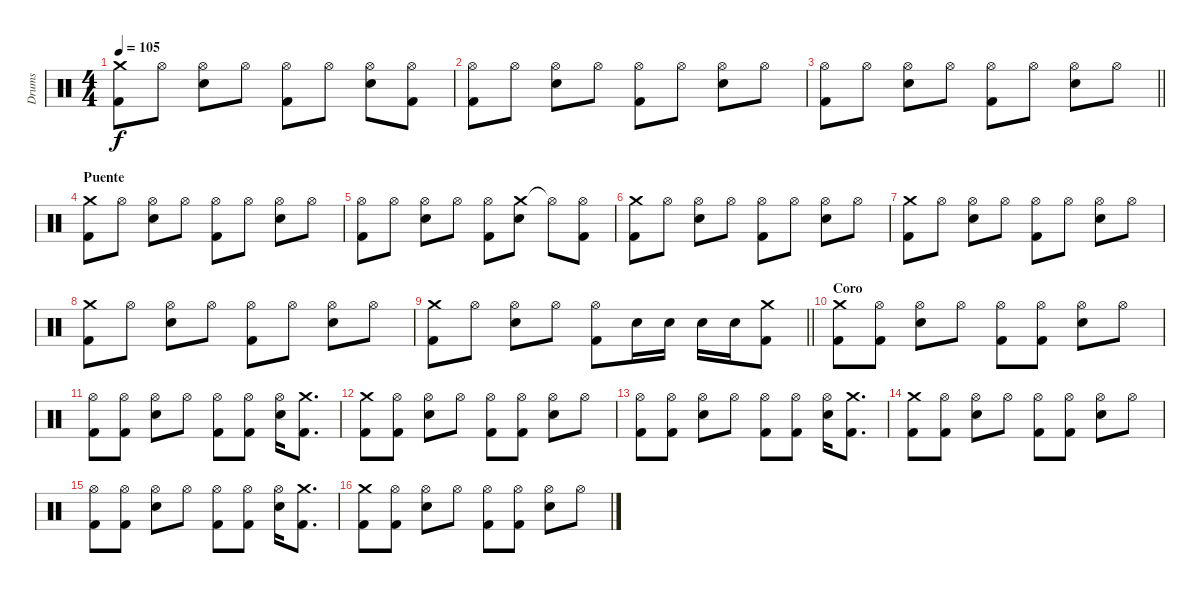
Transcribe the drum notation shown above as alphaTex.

\track ("Drums" "Drums") {instrument percussion}
\staff {score}
\articulation defaults
\ts (4 4)
\tempo 105
\clef neutral
\ks c
("Crash medium (hit)" "Kick (hit) 2").8{dy f} "Hi-Hat (open)".8 ("Hi-Hat (open)" "Snare (hit) 2").8 "Hi-Hat (open)".8 ("Hi-Hat (open)" "Kick (hit) 2").8 "Hi-Hat (open)".8 ("Hi-Hat (open)" "Snare (hit) 2").8 ("Hi-Hat (open)" "Kick (hit) 2").8 |
("Hi-Hat (open)" "Kick (hit) 2").8 "Hi-Hat (open)".8 ("Hi-Hat (open)" "Snare (hit) 2").8 "Hi-Hat (open)".8 ("Hi-Hat (open)" "Kick (hit) 2").8 "Hi-Hat (open)".8 ("Hi-Hat (open)" "Snare (hit) 2").8 "Hi-Hat (open)".8 |
\barLineRight lightlight
("Hi-Hat (open)" "Kick (hit) 2").8 "Hi-Hat (open)".8 ("Hi-Hat (open)" "Snare (hit) 2").8 "Hi-Hat (open)".8 ("Hi-Hat (open)" "Kick (hit) 2").8 "Hi-Hat (open)".8 ("Hi-Hat (open)" "Snare (hit) 2").8 "Hi-Hat (open)".8 |
\section ("" "Puente")
("Crash medium (hit)" "Kick (hit) 2").8 "Hi-Hat (open)".8 ("Hi-Hat (open)" "Snare (hit) 2").8 "Hi-Hat (open)".8 ("Hi-Hat (open)" "Kick (hit) 2").8 "Hi-Hat (open)".8 ("Hi-Hat (open)" "Snare (hit) 2").8 "Hi-Hat (open)".8 |
("Hi-Hat (open)" "Kick (hit) 2").8 "Hi-Hat (open)".8 ("Hi-Hat (open)" "Snare (hit) 2").8 "Hi-Hat (open)".8 ("Hi-Hat (open)" "Kick (hit) 2").8 ("Crash medium (hit)" "Snare (hit) 2").8 "Hi-Hat (open)"{t}.8 ("Hi-Hat (open)" "Kick (hit) 2").8 |
("Crash medium (hit)" "Kick (hit) 2").8 "Hi-Hat (open)".8 ("Hi-Hat (open)" "Snare (hit) 2").8 "Hi-Hat (open)".8 ("Hi-Hat (open)" "Kick (hit) 2").8 "Hi-Hat (open)".8 ("Hi-Hat (open)" "Snare (hit) 2").8 "Hi-Hat (open)".8 |
("Crash medium (hit)" "Kick (hit) 2").8 "Hi-Hat (open)".8 ("Hi-Hat (open)" "Snare (hit) 2").8 "Hi-Hat (open)".8 ("Hi-Hat (open)" "Kick (hit) 2").8 "Hi-Hat (open)".8 ("Hi-Hat (open)" "Snare (hit) 2").8 "Hi-Hat (open)".8 |
("Crash medium (hit)" "Kick (hit) 2").8 "Hi-Hat (open)".8 ("Hi-Hat (open)" "Snare (hit) 2").8 "Hi-Hat (open)".8 ("Hi-Hat (open)" "Kick (hit) 2").8 "Hi-Hat (open)".8 ("Hi-Hat (open)" "Snare (hit) 2").8 "Hi-Hat (open)".8 |
\barLineRight lightlight
("Crash medium (hit)" "Kick (hit) 2").8 "Hi-Hat (open)".8 ("Hi-Hat (open)" "Snare (hit) 2").8 "Hi-Hat (open)".8 ("Hi-Hat (open)" "Kick (hit) 2").8 "Snare (hit) 2".16 "Snare (hit) 2".16 "Snare (hit) 2".16 "Snare (hit) 2".16 ("Crash medium (hit)" "Kick (hit) 2").8 |
\section ("" "Coro")
("Crash medium (hit)" "Kick (hit) 2").8 ("Hi-Hat (open)" "Kick (hit) 2").8 ("Hi-Hat (open)" "Snare (hit) 2").8 "Hi-Hat (open)".8 ("Hi-Hat (open)" "Kick (hit) 2").8 ("Hi-Hat (open)" "Kick (hit) 2").8 ("Hi-Hat (open)" "Snare (hit) 2").8 "Hi-Hat (open)".8 |
("Hi-Hat (open)" "Kick (hit) 2").8 ("Hi-Hat (open)" "Kick (hit) 2").8 ("Hi-Hat (open)" "Snare (hit) 2").8 "Hi-Hat (open)".8 ("Hi-Hat (open)" "Kick (hit) 2").8 ("Hi-Hat (open)" "Kick (hit) 2").8 ("Hi-Hat (open)" "Snare (hit) 2").16 ("Crash medium (hit)" "Kick (hit) 2").8{d} |
("Crash medium (hit)" "Kick (hit) 2").8 ("Hi-Hat (open)" "Kick (hit) 2").8 ("Hi-Hat (open)" "Snare (hit) 2").8 "Hi-Hat (open)".8 ("Hi-Hat (open)" "Kick (hit) 2").8 ("Hi-Hat (open)" "Kick (hit) 2").8 ("Hi-Hat (open)" "Snare (hit) 2").8 "Hi-Hat (open)".8 |
("Hi-Hat (open)" "Kick (hit) 2").8 ("Hi-Hat (open)" "Kick (hit) 2").8 ("Hi-Hat (open)" "Snare (hit) 2").8 "Hi-Hat (open)".8 ("Hi-Hat (open)" "Kick (hit) 2").8 ("Hi-Hat (open)" "Kick (hit) 2").8 ("Hi-Hat (open)" "Snare (hit) 2").16 ("Crash medium (hit)" "Kick (hit) 2").8{d} |
("Crash medium (hit)" "Kick (hit) 2").8 ("Hi-Hat (open)" "Kick (hit) 2").8 ("Hi-Hat (open)" "Snare (hit) 2").8 "Hi-Hat (open)".8 ("Hi-Hat (open)" "Kick (hit) 2").8 ("Hi-Hat (open)" "Kick (hit) 2").8 ("Hi-Hat (open)" "Snare (hit) 2").8 "Hi-Hat (open)".8 |
("Hi-Hat (open)" "Kick (hit) 2").8 ("Hi-Hat (open)" "Kick (hit) 2").8 ("Hi-Hat (open)" "Snare (hit) 2").8 "Hi-Hat (open)".8 ("Hi-Hat (open)" "Kick (hit) 2").8 ("Hi-Hat (open)" "Kick (hit) 2").8 ("Hi-Hat (open)" "Snare (hit) 2").16 ("Crash medium (hit)" "Kick (hit) 2").8{d} |
("Crash medium (hit)" "Kick (hit) 2").8 ("Hi-Hat (open)" "Kick (hit) 2").8 ("Hi-Hat (open)" "Snare (hit) 2").8 "Hi-Hat (open)".8 ("Hi-Hat (open)" "Kick (hit) 2").8 ("Hi-Hat (open)" "Kick (hit) 2").8 ("Hi-Hat (open)" "Snare (hit) 2").8 "Hi-Hat (open)".8
